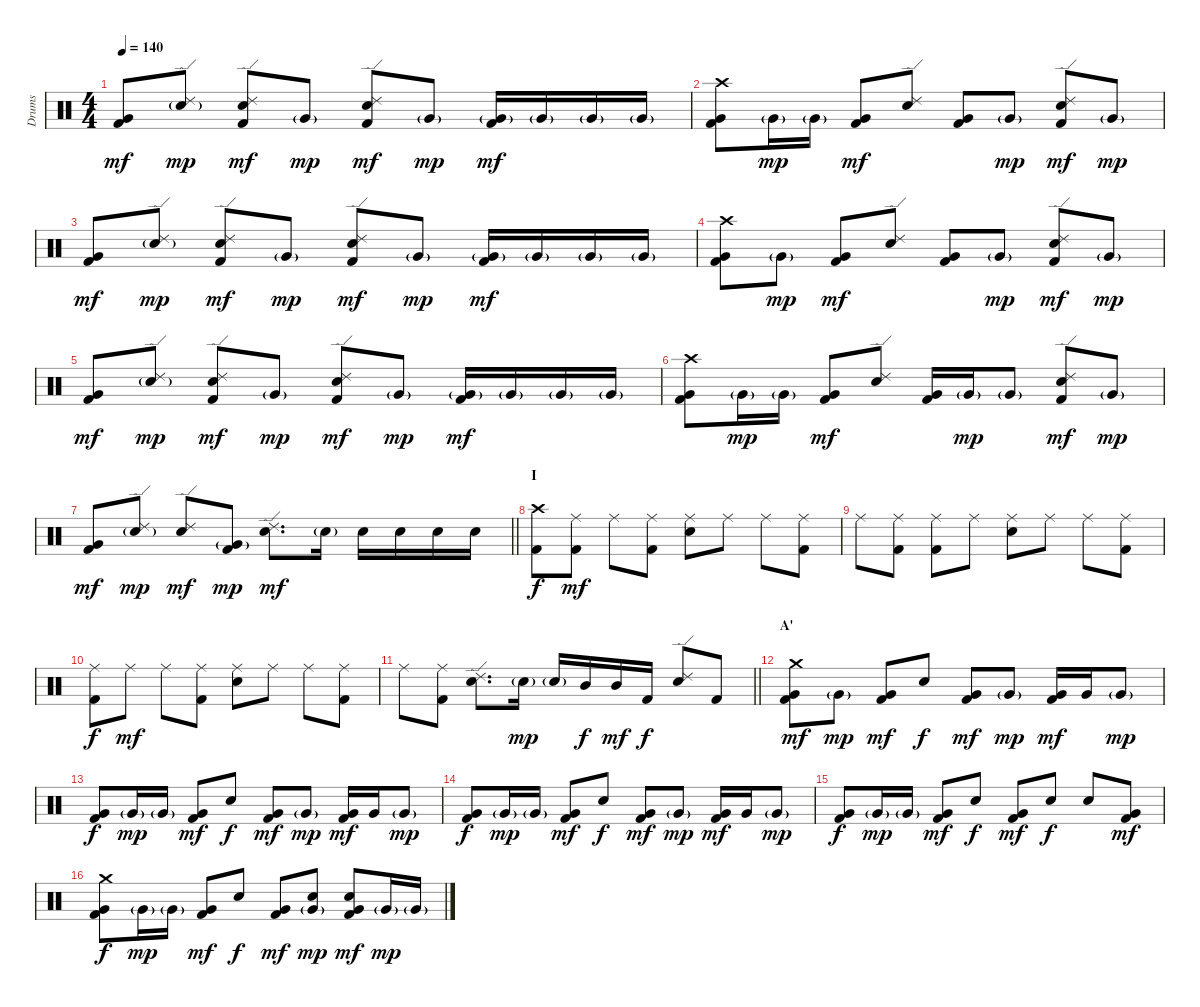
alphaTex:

\track ("Drums" "Drums") {instrument percussion}
\staff {score}
\articulation defaults
\ts (4 4)
\tempo 140
\clef neutral
\ks c
("Very Low Tom (hit)" "Kick (hit) 2").8{dy mf} ("Ride (edge) 2" "Snare (hit) 2"{g}).8{dy mp} ("Ride (edge) 2" "Snare (hit) 2" "Kick (hit) 2").8{dy mf} "Very Low Tom (hit)"{g}.8{dy mp} ("Ride (edge) 2" "Snare (hit) 2" "Kick (hit) 2").8{dy mf} "Very Low Tom (hit)"{g}.8{dy mp} ("Very Low Tom (hit)"{g} "Kick (hit) 2").16{dy mf} "Very Low Tom (hit)"{g}.16 "Very Low Tom (hit)"{g}.16 "Very Low Tom (hit)"{g}.16 |
("Crash high (hit)" "Very Low Tom (hit)" "Kick (hit) 2").8 "Very Low Tom (hit)"{g}.16{dy mp} "Very Low Tom (hit)"{g}.16 ("Very Low Tom (hit)" "Kick (hit) 2").8{dy mf} ("Ride (edge) 2" "Snare (hit) 2").8 ("Very Low Tom (hit)" "Kick (hit) 2").8 "Very Low Tom (hit)"{g}.8{dy mp} ("Ride (edge) 2" "Snare (hit) 2" "Kick (hit) 2").8{dy mf} "Very Low Tom (hit)"{g}.8{dy mp} |
("Very Low Tom (hit)" "Kick (hit) 2").8{dy mf} ("Ride (edge) 2" "Snare (hit) 2"{g}).8{dy mp} ("Ride (edge) 2" "Snare (hit) 2" "Kick (hit) 2").8{dy mf} "Very Low Tom (hit)"{g}.8{dy mp} ("Ride (edge) 2" "Snare (hit) 2" "Kick (hit) 2").8{dy mf} "Very Low Tom (hit)"{g}.8{dy mp} ("Very Low Tom (hit)"{g} "Kick (hit) 2").16{dy mf} "Very Low Tom (hit)"{g}.16 "Very Low Tom (hit)"{g}.16 "Very Low Tom (hit)"{g}.16 |
("Crash high (hit)" "Very Low Tom (hit)" "Kick (hit) 2").8 "Very Low Tom (hit)"{g}.8{dy mp} ("Very Low Tom (hit)" "Kick (hit) 2").8{dy mf} ("Ride (edge) 2" "Snare (hit) 2").8 ("Very Low Tom (hit)" "Kick (hit) 2").8 "Very Low Tom (hit)"{g}.8{dy mp} ("Ride (edge) 2" "Snare (hit) 2" "Kick (hit) 2").8{dy mf} "Very Low Tom (hit)"{g}.8{dy mp} |
("Very Low Tom (hit)" "Kick (hit) 2").8{dy mf} ("Ride (edge) 2" "Snare (hit) 2"{g}).8{dy mp} ("Ride (edge) 2" "Snare (hit) 2" "Kick (hit) 2").8{dy mf} "Very Low Tom (hit)"{g}.8{dy mp} ("Ride (edge) 2" "Snare (hit) 2" "Kick (hit) 2").8{dy mf} "Very Low Tom (hit)"{g}.8{dy mp} ("Very Low Tom (hit)"{g} "Kick (hit) 2").16{dy mf} "Very Low Tom (hit)"{g}.16 "Very Low Tom (hit)"{g}.16 "Very Low Tom (hit)"{g}.16 |
("Crash high (hit)" "Very Low Tom (hit)" "Kick (hit) 2").8 "Very Low Tom (hit)"{g}.16{dy mp} "Very Low Tom (hit)"{g}.16 ("Very Low Tom (hit)" "Kick (hit) 2").8{dy mf} ("Ride (edge) 2" "Snare (hit) 2").8 ("Very Low Tom (hit)" "Kick (hit) 2").16 "Very Low Tom (hit)"{g}.16{dy mp} "Very Low Tom (hit)"{g}.8 ("Ride (edge) 2" "Snare (hit) 2" "Kick (hit) 2").8{dy mf} "Very Low Tom (hit)"{g}.8{dy mp} |
\barLineRight lightlight
("Very Low Tom (hit)" "Kick (hit) 2").8{dy mf} ("Ride (edge) 2" "Snare (hit) 2"{g}).8{dy mp} ("Ride (edge) 2" "Snare (hit) 2").8{dy mf} ("Very Low Tom (hit)"{g} "Kick (hit) 2").8{dy mp} ("Ride (edge) 2" "Snare (hit) 2").8{d dy mf} "Snare (hit) 2"{g}.16 "Snare (hit) 2".16 "Snare (hit) 2".16 "Snare (hit) 2".16 "Snare (hit) 2".16 |
\section ("" "I")
("Crash high (hit)" "Kick (hit) 2").8{dy f} ("Ride (middle)" "Kick (hit) 2").8{dy mf} "Ride (middle)".8 ("Ride (middle)" "Kick (hit) 2").8 ("Ride (middle)" "Snare (hit) 2").8 "Ride (middle)".8 "Ride (middle)".8 ("Ride (middle)" "Kick (hit) 2").8 |
"Ride (middle)".8 ("Ride (middle)" "Kick (hit) 2").8 ("Ride (middle)" "Kick (hit) 2").8 "Ride (middle)".8 ("Ride (middle)" "Snare (hit) 2").8 "Ride (middle)".8 "Ride (middle)".8 ("Ride (middle)" "Kick (hit) 2").8 |
("Ride (middle)" "Kick (hit) 2").8{dy f} "Ride (middle)".8{dy mf} "Ride (middle)".8 ("Ride (middle)" "Kick (hit) 2").8 ("Ride (middle)" "Snare (hit) 2").8 "Ride (middle)".8 "Ride (middle)".8 ("Ride (middle)" "Kick (hit) 2").8 |
\barLineRight lightlight "Ride (middle)".8
("Ride (middle)" "Kick (hit) 2").8 ("Ride (edge) 2" "Snare (hit) 2").8{d} "Snare (hit) 2"{g}.16{dy mp} "Snare (hit) 2"{g}.16 "Mid Tom (hit)".16{dy f} "Mid Tom (hit)".16{dy mf} "Kick (hit) 2".16{dy f} ("Ride (edge) 2" "Snare (hit) 2").8 "Kick (hit) 2".8 |
\section ("" "A'")
("Crash medium (hit)" "Very Low Tom (hit)" "Kick (hit) 2").8{dy mf} "Very Low Tom (hit)"{g}.8{dy mp} ("Very Low Tom (hit)" "Kick (hit) 2").8{dy mf} "Snare (hit) 2".8{dy f} ("Very Low Tom (hit)" "Kick (hit) 2").8{dy mf} "Very Low Tom (hit)"{g}.8{dy mp} ("Very Low Tom (hit)" "Kick (hit) 2").16{dy mf} "Very Low Tom (hit)".16 "Very Low Tom (hit)"{g}.8{dy mp} |
("Very Low Tom (hit)" "Kick (hit) 2").8{dy f} "Very Low Tom (hit)"{g}.16{dy mp} "Very Low Tom (hit)"{g}.16 ("Very Low Tom (hit)" "Kick (hit) 2").8{dy mf} "Snare (hit) 2".8{dy f} ("Very Low Tom (hit)" "Kick (hit) 2").8{dy mf} "Very Low Tom (hit)"{g}.8{dy mp} ("Very Low Tom (hit)" "Kick (hit) 2").16{dy mf} "Very Low Tom (hit)".16 "Very Low Tom (hit)"{g}.8{dy mp} |
("Very Low Tom (hit)" "Kick (hit) 2").8{dy f} "Very Low Tom (hit)"{g}.16{dy mp} "Very Low Tom (hit)"{g}.16 ("Very Low Tom (hit)" "Kick (hit) 2").8{dy mf} "Snare (hit) 2".8{dy f} ("Very Low Tom (hit)" "Kick (hit) 2").8{dy mf} "Very Low Tom (hit)"{g}.8{dy mp} ("Very Low Tom (hit)" "Kick (hit) 2").16{dy mf} "Very Low Tom (hit)".16 "Very Low Tom (hit)"{g}.8{dy mp} |
("Very Low Tom (hit)" "Kick (hit) 2").8{dy f} "Very Low Tom (hit)"{g}.16{dy mp} "Very Low Tom (hit)"{g}.16 ("Very Low Tom (hit)" "Kick (hit) 2").8{dy mf} "Snare (hit) 2".8{dy f} ("Very Low Tom (hit)" "Kick (hit) 2").8{dy mf} "Snare (hit) 2".8{dy f} "Snare (hit) 2".8 ("Very Low Tom (hit)" "Kick (hit) 2").8{dy mf} |
("Crash medium (hit)" "Very Low Tom (hit)" "Kick (hit) 2").8{dy f} "Very Low Tom (hit)"{g}.16{dy mp} "Very Low Tom (hit)"{g}.16 ("Very Low Tom (hit)" "Kick (hit) 2").8{dy mf} "Snare (hit) 2".8{dy f} ("Very Low Tom (hit)" "Kick (hit) 2").8{dy mf} ("Snare (hit) 2" "Very Low Tom (hit)"{g}).8{dy mp} ("Snare (hit) 2" "Very Low Tom (hit)" "Kick (hit) 2").8{dy mf} "Very Low Tom (hit)"{g}.16{dy mp} "Very Low Tom (hit)"{g}.16
